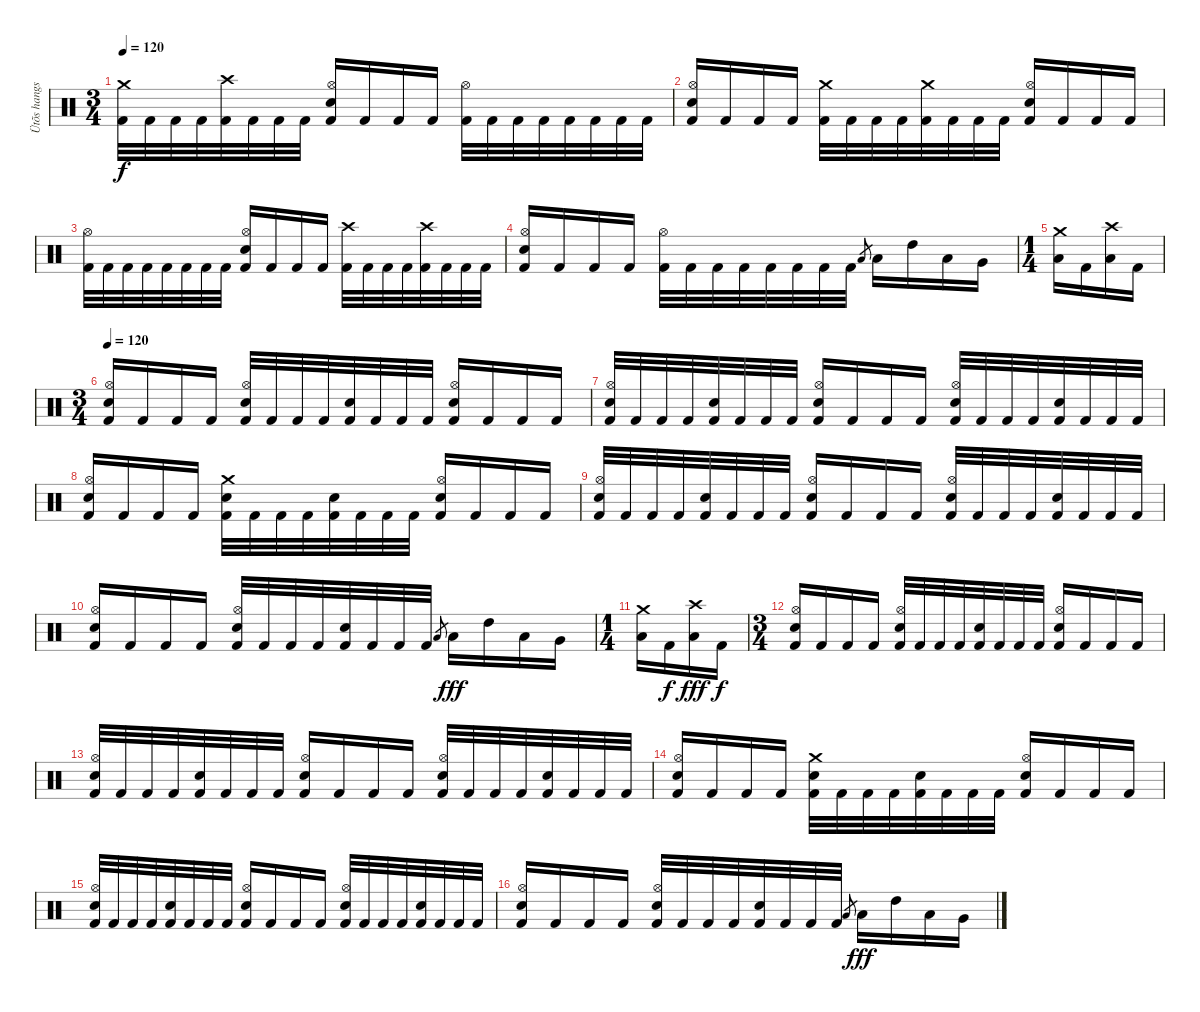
\track ("Ütõs hangszer" "Ütõs hangs") {instrument percussion}
\staff {score}
\articulation defaults
\ts (3 4)
\tempo 120
\clef neutral
\ks c
("Crash medium (hit)" "Kick (hit) 2").32{dy f} "Kick (hit) 2".32 "Kick (hit) 2".32 "Kick (hit) 2".32 ("Crash high (hit)" "Kick (hit) 2").32 "Kick (hit) 2".32 "Kick (hit) 2".32 "Kick (hit) 2".32 ("Hi-Hat (open)" "Electric Snare (hit)" "Kick (hit) 2").16 "Kick (hit) 2".16 "Kick (hit) 2".16 "Kick (hit) 2".16 ("Hi-Hat (open)" "Kick (hit) 2").32 "Kick (hit) 2".32 "Kick (hit) 2".32 "Kick (hit) 2".32 "Kick (hit) 2".32 "Kick (hit) 2".32 "Kick (hit) 2".32 "Kick (hit) 2".32 |
("Hi-Hat (open)" "Electric Snare (hit)" "Kick (hit) 2").16 "Kick (hit) 2".16 "Kick (hit) 2".16 "Kick (hit) 2".16 ("Crash medium (hit)" "Kick (hit) 2").32 "Kick (hit) 2".32 "Kick (hit) 2".32 "Kick (hit) 2".32 ("Crash medium (hit)" "Kick (hit) 2").32 "Kick (hit) 2".32 "Kick (hit) 2".32 "Kick (hit) 2".32 ("Hi-Hat (open)" "Electric Snare (hit)" "Kick (hit) 2").16 "Kick (hit) 2".16 "Kick (hit) 2".16 "Kick (hit) 2".16 |
("Hi-Hat (open)" "Kick (hit) 2").32 "Kick (hit) 2".32 "Kick (hit) 2".32 "Kick (hit) 2".32 "Kick (hit) 2".32 "Kick (hit) 2".32 "Kick (hit) 2".32 "Kick (hit) 2".32 ("Hi-Hat (open)" "Electric Snare (hit)" "Kick (hit) 2").16 "Kick (hit) 2".16 "Kick (hit) 2".16 "Kick (hit) 2".16 ("Crash high (hit)" "Kick (hit) 2").32 "Kick (hit) 2".32 "Kick (hit) 2".32 "Kick (hit) 2".32 ("Crash high (hit)" "Kick (hit) 2").32 "Kick (hit) 2".32 "Kick (hit) 2".32 "Kick (hit) 2".32 |
("Hi-Hat (open)" "Electric Snare (hit)" "Kick (hit) 2").16 "Kick (hit) 2".16 "Kick (hit) 2".16 "Kick (hit) 2".16 ("Hi-Hat (open)" "Kick (hit) 2").32 "Kick (hit) 2".32 "Kick (hit) 2".32 "Kick (hit) 2".32 "Kick (hit) 2".32 "Kick (hit) 2".32 "Kick (hit) 2".32 "Kick (hit) 2".32 "Low Tom (hit)".8{gr} "Low Tom (hit)".16 "High Tom (hit)".16 "Low Tom (hit)".16 "Very Low Tom (hit)".16 |
\ts (1 4)
("Crash medium (hit)" "Low Floor Tom (hit)").16 "Kick (hit) 2".16 ("Crash high (hit)" "Low Floor Tom (hit)").16 "Kick (hit) 2".16 |
\ts (3 4)
\tempo 120
("Hi-Hat (open)" "Electric Snare (hit)" "Kick (hit) 2").16 "Kick (hit) 2".16 "Kick (hit) 2".16 "Kick (hit) 2".16 ("Hi-Hat (open)" "Electric Snare (hit)" "Kick (hit) 2").32 "Kick (hit) 2".32 "Kick (hit) 2".32 "Kick (hit) 2".32 ("Electric Snare (hit)" "Kick (hit) 2").32 "Kick (hit) 2".32 "Kick (hit) 2".32 "Kick (hit) 2".32 ("Hi-Hat (open)" "Electric Snare (hit)" "Kick (hit) 2").16 "Kick (hit) 2".16 "Kick (hit) 2".16 "Kick (hit) 2".16 |
("Hi-Hat (open)" "Electric Snare (hit)" "Kick (hit) 2").32 "Kick (hit) 2".32 "Kick (hit) 2".32 "Kick (hit) 2".32 ("Electric Snare (hit)" "Kick (hit) 2").32 "Kick (hit) 2".32 "Kick (hit) 2".32 "Kick (hit) 2".32 ("Hi-Hat (open)" "Electric Snare (hit)" "Kick (hit) 2").16 "Kick (hit) 2".16 "Kick (hit) 2".16 "Kick (hit) 2".16 ("Hi-Hat (open)" "Electric Snare (hit)" "Kick (hit) 2").32 "Kick (hit) 2".32 "Kick (hit) 2".32 "Kick (hit) 2".32 ("Electric Snare (hit)" "Kick (hit) 2").32 "Kick (hit) 2".32 "Kick (hit) 2".32 "Kick (hit) 2".32 |
("Hi-Hat (open)" "Electric Snare (hit)" "Kick (hit) 2").16 "Kick (hit) 2".16 "Kick (hit) 2".16 "Kick (hit) 2".16 ("Crash medium (hit)" "Electric Snare (hit)" "Kick (hit) 2").32 "Kick (hit) 2".32 "Kick (hit) 2".32 "Kick (hit) 2".32 ("Electric Snare (hit)" "Kick (hit) 2").32 "Kick (hit) 2".32 "Kick (hit) 2".32 "Kick (hit) 2".32 ("Hi-Hat (open)" "Electric Snare (hit)" "Kick (hit) 2").16 "Kick (hit) 2".16 "Kick (hit) 2".16 "Kick (hit) 2".16 |
("Hi-Hat (open)" "Electric Snare (hit)" "Kick (hit) 2").32 "Kick (hit) 2".32 "Kick (hit) 2".32 "Kick (hit) 2".32 ("Electric Snare (hit)" "Kick (hit) 2").32 "Kick (hit) 2".32 "Kick (hit) 2".32 "Kick (hit) 2".32 ("Hi-Hat (open)" "Electric Snare (hit)" "Kick (hit) 2").16 "Kick (hit) 2".16 "Kick (hit) 2".16 "Kick (hit) 2".16 ("Hi-Hat (open)" "Electric Snare (hit)" "Kick (hit) 2").32 "Kick (hit) 2".32 "Kick (hit) 2".32 "Kick (hit) 2".32 ("Electric Snare (hit)" "Kick (hit) 2").32 "Kick (hit) 2".32 "Kick (hit) 2".32 "Kick (hit) 2".32 |
("Hi-Hat (open)" "Electric Snare (hit)" "Kick (hit) 2").16 "Kick (hit) 2".16 "Kick (hit) 2".16 "Kick (hit) 2".16 ("Hi-Hat (open)" "Electric Snare (hit)" "Kick (hit) 2").32 "Kick (hit) 2".32 "Kick (hit) 2".32 "Kick (hit) 2".32 ("Electric Snare (hit)" "Kick (hit) 2").32 "Kick (hit) 2".32 "Kick (hit) 2".32 "Kick (hit) 2".32 "Low Tom (hit)".8{gr} "Low Tom (hit)".16{dy fff} "High Tom (hit)".16 "Low Tom (hit)".16 "Very Low Tom (hit)".16 |
\ts (1 4)
("Crash medium (hit)" "Low Floor Tom (hit)").16 "Kick (hit) 2".16{dy f} ("Crash high (hit)" "Low Floor Tom (hit)").16{dy fff} "Kick (hit) 2".16{dy f} |
\ts (3 4)
("Hi-Hat (open)" "Electric Snare (hit)" "Kick (hit) 2").16 "Kick (hit) 2".16 "Kick (hit) 2".16 "Kick (hit) 2".16 ("Hi-Hat (open)" "Electric Snare (hit)" "Kick (hit) 2").32 "Kick (hit) 2".32 "Kick (hit) 2".32 "Kick (hit) 2".32 ("Electric Snare (hit)" "Kick (hit) 2").32 "Kick (hit) 2".32 "Kick (hit) 2".32 "Kick (hit) 2".32 ("Hi-Hat (open)" "Electric Snare (hit)" "Kick (hit) 2").16 "Kick (hit) 2".16 "Kick (hit) 2".16 "Kick (hit) 2".16 |
("Hi-Hat (open)" "Electric Snare (hit)" "Kick (hit) 2").32 "Kick (hit) 2".32 "Kick (hit) 2".32 "Kick (hit) 2".32 ("Electric Snare (hit)" "Kick (hit) 2").32 "Kick (hit) 2".32 "Kick (hit) 2".32 "Kick (hit) 2".32 ("Hi-Hat (open)" "Electric Snare (hit)" "Kick (hit) 2").16 "Kick (hit) 2".16 "Kick (hit) 2".16 "Kick (hit) 2".16 ("Hi-Hat (open)" "Electric Snare (hit)" "Kick (hit) 2").32 "Kick (hit) 2".32 "Kick (hit) 2".32 "Kick (hit) 2".32 ("Electric Snare (hit)" "Kick (hit) 2").32 "Kick (hit) 2".32 "Kick (hit) 2".32 "Kick (hit) 2".32 |
("Hi-Hat (open)" "Electric Snare (hit)" "Kick (hit) 2").16 "Kick (hit) 2".16 "Kick (hit) 2".16 "Kick (hit) 2".16 ("Crash medium (hit)" "Electric Snare (hit)" "Kick (hit) 2").32 "Kick (hit) 2".32 "Kick (hit) 2".32 "Kick (hit) 2".32 ("Electric Snare (hit)" "Kick (hit) 2").32 "Kick (hit) 2".32 "Kick (hit) 2".32 "Kick (hit) 2".32 ("Hi-Hat (open)" "Electric Snare (hit)" "Kick (hit) 2").16 "Kick (hit) 2".16 "Kick (hit) 2".16 "Kick (hit) 2".16 |
("Hi-Hat (open)" "Electric Snare (hit)" "Kick (hit) 2").32 "Kick (hit) 2".32 "Kick (hit) 2".32 "Kick (hit) 2".32 ("Electric Snare (hit)" "Kick (hit) 2").32 "Kick (hit) 2".32 "Kick (hit) 2".32 "Kick (hit) 2".32 ("Hi-Hat (open)" "Electric Snare (hit)" "Kick (hit) 2").16 "Kick (hit) 2".16 "Kick (hit) 2".16 "Kick (hit) 2".16 ("Hi-Hat (open)" "Electric Snare (hit)" "Kick (hit) 2").32 "Kick (hit) 2".32 "Kick (hit) 2".32 "Kick (hit) 2".32 ("Electric Snare (hit)" "Kick (hit) 2").32 "Kick (hit) 2".32 "Kick (hit) 2".32 "Kick (hit) 2".32 |
("Hi-Hat (open)" "Electric Snare (hit)" "Kick (hit) 2").16 "Kick (hit) 2".16 "Kick (hit) 2".16 "Kick (hit) 2".16 ("Hi-Hat (open)" "Electric Snare (hit)" "Kick (hit) 2").32 "Kick (hit) 2".32 "Kick (hit) 2".32 "Kick (hit) 2".32 ("Electric Snare (hit)" "Kick (hit) 2").32 "Kick (hit) 2".32 "Kick (hit) 2".32 "Kick (hit) 2".32 "Low Tom (hit)".8{gr} "Low Tom (hit)".16{dy fff} "High Tom (hit)".16 "Low Tom (hit)".16 "Very Low Tom (hit)".16
